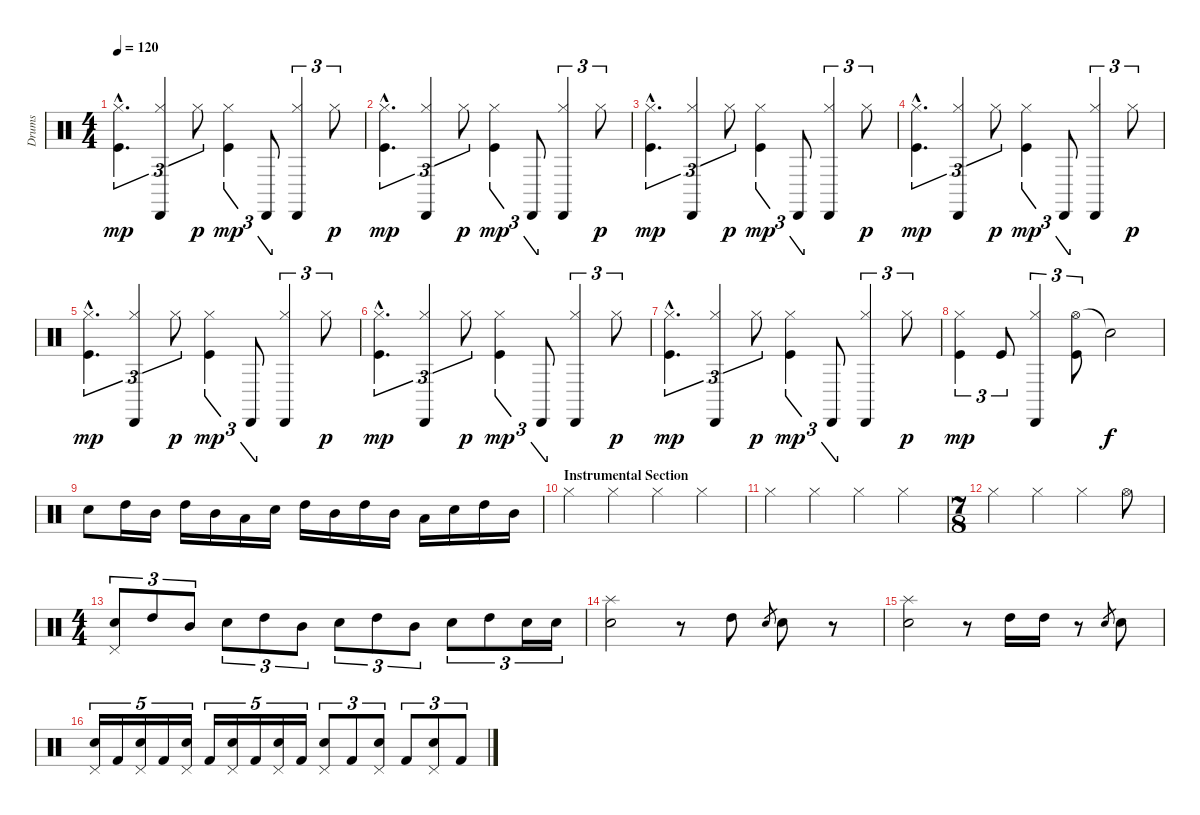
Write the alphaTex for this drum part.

\track ("Drums" "Drums") {instrument percussion}
\staff {score}
\articulation defaults
\ts (4 4)
\tempo 120
\clef neutral
\ks c
("Hi-Hat (closed)"{hac} "Kick (hit)"{hac}).4{d tu (3 2) dy mp} ("Hi-Hat (closed)" "Cabasa (hit)").4{tu (3 2)} "Hi-Hat (closed)".8{tu (3 2) dy p} ("Hi-Hat (closed)" "Kick (hit)").4{tu (3 2) dy mp} "Cabasa (hit)".8{tu (3 2)} ("Hi-Hat (closed)" "Cabasa (hit)").4{tu (3 2)} "Hi-Hat (closed)".8{tu (3 2) dy p} |
("Hi-Hat (closed)"{hac} "Kick (hit)"{hac}).4{d tu (3 2) dy mp} ("Hi-Hat (closed)" "Cabasa (hit)").4{tu (3 2)} "Hi-Hat (closed)".8{tu (3 2) dy p} ("Hi-Hat (closed)" "Kick (hit)").4{tu (3 2) dy mp} "Cabasa (hit)".8{tu (3 2)} ("Hi-Hat (closed)" "Cabasa (hit)").4{tu (3 2)} "Hi-Hat (closed)".8{tu (3 2) dy p} |
("Hi-Hat (closed)"{hac} "Kick (hit)"{hac}).4{d tu (3 2) dy mp} ("Hi-Hat (closed)" "Cabasa (hit)").4{tu (3 2)} "Hi-Hat (closed)".8{tu (3 2) dy p} ("Hi-Hat (closed)" "Kick (hit)").4{tu (3 2) dy mp} "Cabasa (hit)".8{tu (3 2)} ("Hi-Hat (closed)" "Cabasa (hit)").4{tu (3 2)} "Hi-Hat (closed)".8{tu (3 2) dy p} |
("Hi-Hat (closed)"{hac} "Kick (hit)"{hac}).4{d tu (3 2) dy mp} ("Hi-Hat (closed)" "Cabasa (hit)").4{tu (3 2)} "Hi-Hat (closed)".8{tu (3 2) dy p} ("Hi-Hat (closed)" "Kick (hit)").4{tu (3 2) dy mp} "Cabasa (hit)".8{tu (3 2)} ("Hi-Hat (closed)" "Cabasa (hit)").4{tu (3 2)} "Hi-Hat (closed)".8{tu (3 2) dy p} |
("Hi-Hat (closed)"{hac} "Kick (hit)"{hac}).4{d tu (3 2) dy mp} ("Hi-Hat (closed)" "Cabasa (hit)").4{tu (3 2)} "Hi-Hat (closed)".8{tu (3 2) dy p} ("Hi-Hat (closed)" "Kick (hit)").4{tu (3 2) dy mp} "Cabasa (hit)".8{tu (3 2)} ("Hi-Hat (closed)" "Cabasa (hit)").4{tu (3 2)} "Hi-Hat (closed)".8{tu (3 2) dy p} |
("Hi-Hat (closed)"{hac} "Kick (hit)"{hac}).4{d tu (3 2) dy mp} ("Hi-Hat (closed)" "Cabasa (hit)").4{tu (3 2)} "Hi-Hat (closed)".8{tu (3 2) dy p} ("Hi-Hat (closed)" "Kick (hit)").4{tu (3 2) dy mp} "Cabasa (hit)".8{tu (3 2)} ("Hi-Hat (closed)" "Cabasa (hit)").4{tu (3 2)} "Hi-Hat (closed)".8{tu (3 2) dy p} |
("Hi-Hat (closed)"{hac} "Kick (hit)"{hac}).4{d tu (3 2) dy mp} ("Hi-Hat (closed)" "Cabasa (hit)").4{tu (3 2)} "Hi-Hat (closed)".8{tu (3 2) dy p} ("Hi-Hat (closed)" "Kick (hit)").4{tu (3 2) dy mp} "Cabasa (hit)".8{tu (3 2)} ("Hi-Hat (closed)" "Cabasa (hit)").4{tu (3 2)} "Hi-Hat (closed)".8{tu (3 2) dy p} |
("Hi-Hat (closed)" "Kick (hit)").4{tu (3 2) dy mp} "Kick (hit)".8{tu (3 2)} ("Hi-Hat (closed)" "Cabasa (hit)").4{tu (3 2)} ("Hi-Hat (open)" "Kick (hit)").8{tu (3 2)} "Snare (hit)"{t}.2{dy f} |
"Electric Snare (hit)".8 "High Tom (hit)".16 "Mid Tom (hit)".16 "High Tom (hit)".16 "Mid Tom (hit)".16 "Low Tom (hit)".16 "Electric Snare (hit)".16 "High Tom (hit)".16 "Mid Tom (hit)".16 "High Tom (hit)".16 "Mid Tom (hit)".16 "Low Tom (hit)".16 "Electric Snare (hit)".16 "High Tom (hit)".16 "Mid Tom (hit)".16 |
\section ("" "Instrumental Section")
"Hi-Hat (closed)".4 "Hi-Hat (closed)".4 "Hi-Hat (closed)".4 "Hi-Hat (closed)".4 |
"Hi-Hat (closed)".4 "Hi-Hat (closed)".4 "Hi-Hat (closed)".4 "Hi-Hat (closed)".4 |
\ts (7 8)
"Hi-Hat (closed)".4 "Hi-Hat (closed)".4 "Hi-Hat (closed)".4 "Hi-Hat (open)".8 |
\ts (4 4)
("Pedal Hi-Hat (hit)" "Electric Snare (hit)").8{tu (3 2)} "High Tom (hit)".8{tu (3 2)} "Mid Tom (hit)".8{tu (3 2)} "Electric Snare (hit)".8{tu (3 2)} "High Tom (hit)".8{tu (3 2)} "Mid Tom (hit)".8{tu (3 2)} "Electric Snare (hit)".8{tu (3 2)} "High Tom (hit)".8{tu (3 2)} "Mid Tom (hit)".8{tu (3 2)} "Electric Snare (hit)".8{tu (3 2)} "High Tom (hit)".8{tu (3 2)} "Electric Snare (hit)".16{tu (3 2)} "Electric Snare (hit)".16{tu (3 2)} |
("Splash (hit)" "Electric Snare (hit)").2 r.8 "High Tom (hit)".8 "Electric Snare (hit)".8{gr} "Electric Snare (hit)".8 r.8 |
("Splash (hit)" "Electric Snare (hit)").2 r.8 "High Tom (hit)".16 "High Tom (hit)".16 r.8 "Electric Snare (hit)".8{gr} "Electric Snare (hit)".8 |
("Pedal Hi-Hat (hit)" "Electric Snare (hit)").16{tu (5 4)} "Kick (hit) 2".16{tu (5 4)} ("Pedal Hi-Hat (hit)" "Electric Snare (hit)").16{tu (5 4)} "Kick (hit) 2".16{tu (5 4)} ("Pedal Hi-Hat (hit)" "Electric Snare (hit)").16{tu (5 4)} "Kick (hit) 2".16{tu (5 4)} ("Pedal Hi-Hat (hit)" "Electric Snare (hit)").16{tu (5 4)} "Kick (hit) 2".16{tu (5 4)} ("Pedal Hi-Hat (hit)" "Electric Snare (hit)").16{tu (5 4)} "Kick (hit) 2".16{tu (5 4)} ("Pedal Hi-Hat (hit)" "Electric Snare (hit)").8{tu (3 2)} "Kick (hit) 2".8{tu (3 2)} ("Pedal Hi-Hat (hit)" "Electric Snare (hit)").8{tu (3 2)} "Kick (hit) 2".8{tu (3 2)} ("Pedal Hi-Hat (hit)" "Electric Snare (hit)").8{tu (3 2)} "Kick (hit) 2".8{tu (3 2)}
